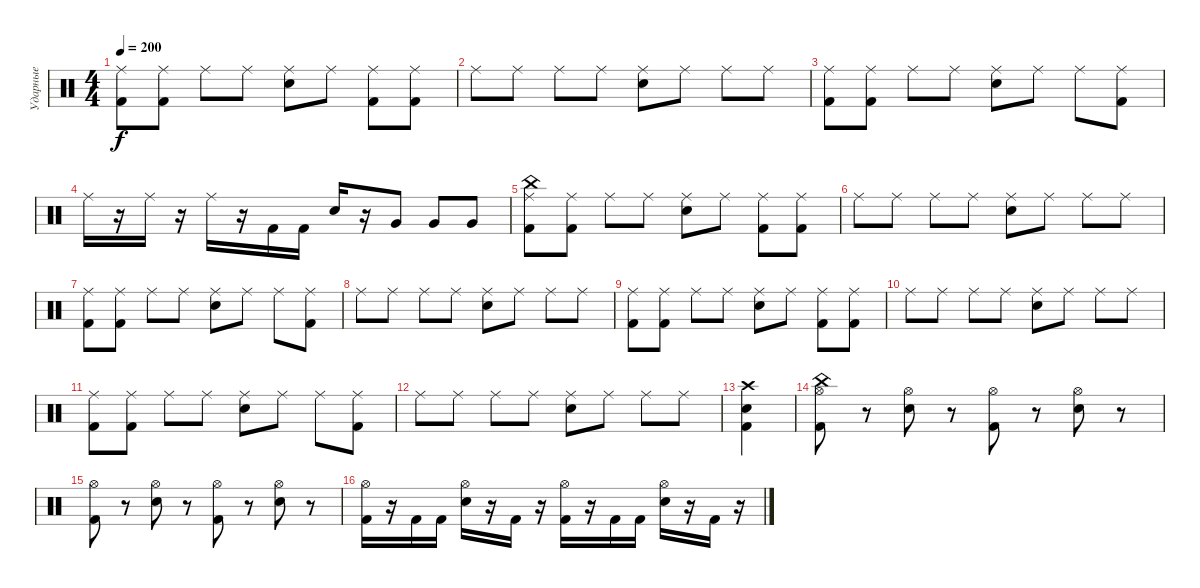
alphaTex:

\track ("Ударные" "Ударные") {instrument percussion}
\staff {score}
\articulation defaults
\ts (4 4)
\tempo 200
\clef neutral
\ks c
("Kick (hit) 2" "Ride (middle)").8{dy f} ("Kick (hit) 2" "Ride (middle)").8 "Ride (middle)".8 "Ride (middle)".8 ("Electric Snare (hit)" "Ride (middle)").8 "Ride (middle)".8 ("Kick (hit) 2" "Ride (middle)").8 ("Kick (hit) 2" "Ride (middle)").8 |
"Ride (middle)".8 "Ride (middle)".8 "Ride (middle)".8 "Ride (middle)".8 ("Electric Snare (hit)" "Ride (middle)").8 "Ride (middle)".8 "Ride (middle)".8 "Ride (middle)".8 |
("Kick (hit) 2" "Ride (middle)").8 ("Kick (hit) 2" "Ride (middle)").8 "Ride (middle)".8 "Ride (middle)".8 ("Electric Snare (hit)" "Ride (middle)").8 "Ride (middle)".8 "Ride (middle)".8 ("Kick (hit) 2" "Ride (middle)").8 |
"Ride (middle)".16 r.16 "Ride (middle)".16 r.16 "Ride (middle)".16 r.16 "Kick (hit) 2".16 "Kick (hit) 2".16 "Electric Snare (hit)".16 r.16 "Very Low Tom (hit)".8 "Very Low Tom (hit)".8 "Very Low Tom (hit)".8 |
("Kick (hit) 2" "Ride (middle)" "China (hit)").8 ("Kick (hit) 2" "Ride (middle)").8 "Ride (middle)".8 "Ride (middle)".8 ("Electric Snare (hit)" "Ride (middle)").8 "Ride (middle)".8 ("Kick (hit) 2" "Ride (middle)").8 ("Kick (hit) 2" "Ride (middle)").8 |
"Ride (middle)".8 "Ride (middle)".8 "Ride (middle)".8 "Ride (middle)".8 ("Electric Snare (hit)" "Ride (middle)").8 "Ride (middle)".8 "Ride (middle)".8 "Ride (middle)".8 |
("Kick (hit) 2" "Ride (middle)").8 ("Kick (hit) 2" "Ride (middle)").8 "Ride (middle)".8 "Ride (middle)".8 ("Electric Snare (hit)" "Ride (middle)").8 "Ride (middle)".8 "Ride (middle)".8 ("Kick (hit) 2" "Ride (middle)").8 |
"Ride (middle)".8 "Ride (middle)".8 "Ride (middle)".8 "Ride (middle)".8 ("Electric Snare (hit)" "Ride (middle)").8 "Ride (middle)".8 "Ride (middle)".8 "Ride (middle)".8 |
("Kick (hit) 2" "Ride (middle)").8 ("Kick (hit) 2" "Ride (middle)").8 "Ride (middle)".8 "Ride (middle)".8 ("Electric Snare (hit)" "Ride (middle)").8 "Ride (middle)".8 ("Kick (hit) 2" "Ride (middle)").8 ("Kick (hit) 2" "Ride (middle)").8 |
"Ride (middle)".8 "Ride (middle)".8 "Ride (middle)".8 "Ride (middle)".8 ("Electric Snare (hit)" "Ride (middle)").8 "Ride (middle)".8 "Ride (middle)".8 "Ride (middle)".8 |
("Kick (hit) 2" "Ride (middle)").8 ("Kick (hit) 2" "Ride (middle)").8 "Ride (middle)".8 "Ride (middle)".8 ("Electric Snare (hit)" "Ride (middle)").8 "Ride (middle)".8 "Ride (middle)".8 ("Kick (hit) 2" "Ride (middle)").8 |
"Ride (middle)".8 "Ride (middle)".8 "Ride (middle)".8 "Ride (middle)".8 ("Electric Snare (hit)" "Ride (middle)").8 "Ride (middle)".8 "Ride (middle)".8 "Ride (middle)".8 |
("Electric Snare (hit)" "Kick (hit) 2" "Crash high (hit)").4 |
("Kick (hit) 2" "Hi-Hat (open)" "China (hit)").8 r.8 ("Electric Snare (hit)" "Hi-Hat (open)").8 r.8 ("Kick (hit) 2" "Hi-Hat (open)").8 r.8 ("Electric Snare (hit)" "Hi-Hat (open)").8 r.8 |
("Kick (hit) 2" "Hi-Hat (open)").8 r.8 ("Electric Snare (hit)" "Hi-Hat (open)").8 r.8 ("Kick (hit) 2" "Hi-Hat (open)").8 r.8 ("Electric Snare (hit)" "Hi-Hat (open)").8 r.8 |
("Kick (hit) 2" "Hi-Hat (open)").16 r.16 "Kick (hit) 2".16 "Kick (hit) 2".16 ("Electric Snare (hit)" "Hi-Hat (open)").16 r.16 "Kick (hit) 2".16 r.16 ("Kick (hit) 2" "Hi-Hat (open)").16 r.16 "Kick (hit) 2".16 "Kick (hit) 2".16 ("Electric Snare (hit)" "Hi-Hat (open)").16 r.16 "Kick (hit) 2".16 r.16
